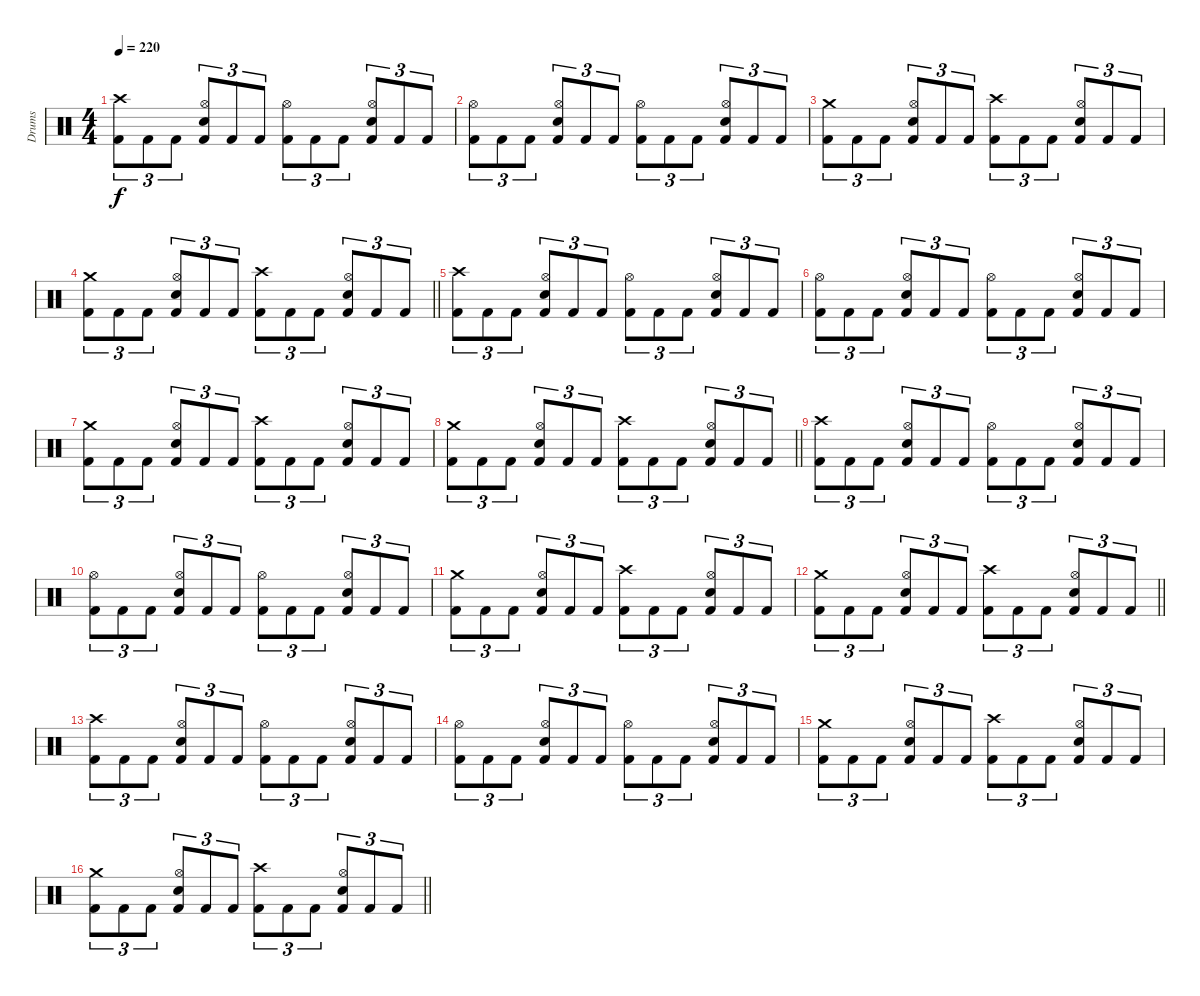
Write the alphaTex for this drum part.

\track ("Drums" "Drums") {instrument percussion}
\staff {score}
\articulation defaults
\ts (4 4)
\tempo 220
\clef neutral
\ks c
("Crash high (hit)" "Kick (hit) 2").8{tu (3 2) dy f} "Kick (hit) 2".8{tu (3 2)} "Kick (hit) 2".8{tu (3 2)} ("Hi-Hat (open)" "Snare (hit) 2" "Kick (hit) 2").8{tu (3 2)} "Kick (hit) 2".8{tu (3 2)} "Kick (hit) 2".8{tu (3 2)} ("Hi-Hat (open)" "Kick (hit) 2").8{tu (3 2)} "Kick (hit) 2".8{tu (3 2)} "Kick (hit) 2".8{tu (3 2)} ("Hi-Hat (open)" "Snare (hit) 2" "Kick (hit) 2").8{tu (3 2)} "Kick (hit) 2".8{tu (3 2)} "Kick (hit) 2".8{tu (3 2)} |
("Hi-Hat (open)" "Kick (hit) 2").8{tu (3 2)} "Kick (hit) 2".8{tu (3 2)} "Kick (hit) 2".8{tu (3 2)} ("Hi-Hat (open)" "Snare (hit) 2" "Kick (hit) 2").8{tu (3 2)} "Kick (hit) 2".8{tu (3 2)} "Kick (hit) 2".8{tu (3 2)} ("Hi-Hat (open)" "Kick (hit) 2").8{tu (3 2)} "Kick (hit) 2".8{tu (3 2)} "Kick (hit) 2".8{tu (3 2)} ("Hi-Hat (open)" "Snare (hit) 2" "Kick (hit) 2").8{tu (3 2)} "Kick (hit) 2".8{tu (3 2)} "Kick (hit) 2".8{tu (3 2)} |
("Crash medium (hit)" "Kick (hit) 2").8{tu (3 2)} "Kick (hit) 2".8{tu (3 2)} "Kick (hit) 2".8{tu (3 2)} ("Hi-Hat (open)" "Snare (hit) 2" "Kick (hit) 2").8{tu (3 2)} "Kick (hit) 2".8{tu (3 2)} "Kick (hit) 2".8{tu (3 2)} ("Crash high (hit)" "Kick (hit) 2").8{tu (3 2)} "Kick (hit) 2".8{tu (3 2)} "Kick (hit) 2".8{tu (3 2)} ("Hi-Hat (open)" "Snare (hit) 2" "Kick (hit) 2").8{tu (3 2)} "Kick (hit) 2".8{tu (3 2)} "Kick (hit) 2".8{tu (3 2)} |
\barLineRight lightlight
("Crash medium (hit)" "Kick (hit) 2").8{tu (3 2)} "Kick (hit) 2".8{tu (3 2)} "Kick (hit) 2".8{tu (3 2)} ("Hi-Hat (open)" "Snare (hit) 2" "Kick (hit) 2").8{tu (3 2)} "Kick (hit) 2".8{tu (3 2)} "Kick (hit) 2".8{tu (3 2)} ("Crash high (hit)" "Kick (hit) 2").8{tu (3 2)} "Kick (hit) 2".8{tu (3 2)} "Kick (hit) 2".8{tu (3 2)} ("Hi-Hat (open)" "Snare (hit) 2" "Kick (hit) 2").8{tu (3 2)} "Kick (hit) 2".8{tu (3 2)} "Kick (hit) 2".8{tu (3 2)} |
("Crash high (hit)" "Kick (hit) 2").8{tu (3 2)} "Kick (hit) 2".8{tu (3 2)} "Kick (hit) 2".8{tu (3 2)} ("Hi-Hat (open)" "Snare (hit) 2" "Kick (hit) 2").8{tu (3 2)} "Kick (hit) 2".8{tu (3 2)} "Kick (hit) 2".8{tu (3 2)} ("Hi-Hat (open)" "Kick (hit) 2").8{tu (3 2)} "Kick (hit) 2".8{tu (3 2)} "Kick (hit) 2".8{tu (3 2)} ("Hi-Hat (open)" "Snare (hit) 2" "Kick (hit) 2").8{tu (3 2)} "Kick (hit) 2".8{tu (3 2)} "Kick (hit) 2".8{tu (3 2)} |
("Hi-Hat (open)" "Kick (hit) 2").8{tu (3 2)} "Kick (hit) 2".8{tu (3 2)} "Kick (hit) 2".8{tu (3 2)} ("Hi-Hat (open)" "Snare (hit) 2" "Kick (hit) 2").8{tu (3 2)} "Kick (hit) 2".8{tu (3 2)} "Kick (hit) 2".8{tu (3 2)} ("Hi-Hat (open)" "Kick (hit) 2").8{tu (3 2)} "Kick (hit) 2".8{tu (3 2)} "Kick (hit) 2".8{tu (3 2)} ("Hi-Hat (open)" "Snare (hit) 2" "Kick (hit) 2").8{tu (3 2)} "Kick (hit) 2".8{tu (3 2)} "Kick (hit) 2".8{tu (3 2)} |
("Crash medium (hit)" "Kick (hit) 2").8{tu (3 2)} "Kick (hit) 2".8{tu (3 2)} "Kick (hit) 2".8{tu (3 2)} ("Hi-Hat (open)" "Snare (hit) 2" "Kick (hit) 2").8{tu (3 2)} "Kick (hit) 2".8{tu (3 2)} "Kick (hit) 2".8{tu (3 2)} ("Crash high (hit)" "Kick (hit) 2").8{tu (3 2)} "Kick (hit) 2".8{tu (3 2)} "Kick (hit) 2".8{tu (3 2)} ("Hi-Hat (open)" "Snare (hit) 2" "Kick (hit) 2").8{tu (3 2)} "Kick (hit) 2".8{tu (3 2)} "Kick (hit) 2".8{tu (3 2)} |
\barLineRight lightlight
("Crash medium (hit)" "Kick (hit) 2").8{tu (3 2)} "Kick (hit) 2".8{tu (3 2)} "Kick (hit) 2".8{tu (3 2)} ("Hi-Hat (open)" "Snare (hit) 2" "Kick (hit) 2").8{tu (3 2)} "Kick (hit) 2".8{tu (3 2)} "Kick (hit) 2".8{tu (3 2)} ("Crash high (hit)" "Kick (hit) 2").8{tu (3 2)} "Kick (hit) 2".8{tu (3 2)} "Kick (hit) 2".8{tu (3 2)} ("Hi-Hat (open)" "Snare (hit) 2" "Kick (hit) 2").8{tu (3 2)} "Kick (hit) 2".8{tu (3 2)} "Kick (hit) 2".8{tu (3 2)} |
("Crash high (hit)" "Kick (hit) 2").8{tu (3 2)} "Kick (hit) 2".8{tu (3 2)} "Kick (hit) 2".8{tu (3 2)} ("Hi-Hat (open)" "Snare (hit) 2" "Kick (hit) 2").8{tu (3 2)} "Kick (hit) 2".8{tu (3 2)} "Kick (hit) 2".8{tu (3 2)} ("Hi-Hat (open)" "Kick (hit) 2").8{tu (3 2)} "Kick (hit) 2".8{tu (3 2)} "Kick (hit) 2".8{tu (3 2)} ("Hi-Hat (open)" "Snare (hit) 2" "Kick (hit) 2").8{tu (3 2)} "Kick (hit) 2".8{tu (3 2)} "Kick (hit) 2".8{tu (3 2)} |
("Hi-Hat (open)" "Kick (hit) 2").8{tu (3 2)} "Kick (hit) 2".8{tu (3 2)} "Kick (hit) 2".8{tu (3 2)} ("Hi-Hat (open)" "Snare (hit) 2" "Kick (hit) 2").8{tu (3 2)} "Kick (hit) 2".8{tu (3 2)} "Kick (hit) 2".8{tu (3 2)} ("Hi-Hat (open)" "Kick (hit) 2").8{tu (3 2)} "Kick (hit) 2".8{tu (3 2)} "Kick (hit) 2".8{tu (3 2)} ("Hi-Hat (open)" "Snare (hit) 2" "Kick (hit) 2").8{tu (3 2)} "Kick (hit) 2".8{tu (3 2)} "Kick (hit) 2".8{tu (3 2)} |
("Crash medium (hit)" "Kick (hit) 2").8{tu (3 2)} "Kick (hit) 2".8{tu (3 2)} "Kick (hit) 2".8{tu (3 2)} ("Hi-Hat (open)" "Snare (hit) 2" "Kick (hit) 2").8{tu (3 2)} "Kick (hit) 2".8{tu (3 2)} "Kick (hit) 2".8{tu (3 2)} ("Crash high (hit)" "Kick (hit) 2").8{tu (3 2)} "Kick (hit) 2".8{tu (3 2)} "Kick (hit) 2".8{tu (3 2)} ("Hi-Hat (open)" "Snare (hit) 2" "Kick (hit) 2").8{tu (3 2)} "Kick (hit) 2".8{tu (3 2)} "Kick (hit) 2".8{tu (3 2)} |
\barLineRight lightlight
("Crash medium (hit)" "Kick (hit) 2").8{tu (3 2)} "Kick (hit) 2".8{tu (3 2)} "Kick (hit) 2".8{tu (3 2)} ("Hi-Hat (open)" "Snare (hit) 2" "Kick (hit) 2").8{tu (3 2)} "Kick (hit) 2".8{tu (3 2)} "Kick (hit) 2".8{tu (3 2)} ("Crash high (hit)" "Kick (hit) 2").8{tu (3 2)} "Kick (hit) 2".8{tu (3 2)} "Kick (hit) 2".8{tu (3 2)} ("Hi-Hat (open)" "Snare (hit) 2" "Kick (hit) 2").8{tu (3 2)} "Kick (hit) 2".8{tu (3 2)} "Kick (hit) 2".8{tu (3 2)} |
("Crash high (hit)" "Kick (hit) 2").8{tu (3 2)} "Kick (hit) 2".8{tu (3 2)} "Kick (hit) 2".8{tu (3 2)} ("Hi-Hat (open)" "Snare (hit) 2" "Kick (hit) 2").8{tu (3 2)} "Kick (hit) 2".8{tu (3 2)} "Kick (hit) 2".8{tu (3 2)} ("Hi-Hat (open)" "Kick (hit) 2").8{tu (3 2)} "Kick (hit) 2".8{tu (3 2)} "Kick (hit) 2".8{tu (3 2)} ("Hi-Hat (open)" "Snare (hit) 2" "Kick (hit) 2").8{tu (3 2)} "Kick (hit) 2".8{tu (3 2)} "Kick (hit) 2".8{tu (3 2)} |
("Hi-Hat (open)" "Kick (hit) 2").8{tu (3 2)} "Kick (hit) 2".8{tu (3 2)} "Kick (hit) 2".8{tu (3 2)} ("Hi-Hat (open)" "Snare (hit) 2" "Kick (hit) 2").8{tu (3 2)} "Kick (hit) 2".8{tu (3 2)} "Kick (hit) 2".8{tu (3 2)} ("Hi-Hat (open)" "Kick (hit) 2").8{tu (3 2)} "Kick (hit) 2".8{tu (3 2)} "Kick (hit) 2".8{tu (3 2)} ("Hi-Hat (open)" "Snare (hit) 2" "Kick (hit) 2").8{tu (3 2)} "Kick (hit) 2".8{tu (3 2)} "Kick (hit) 2".8{tu (3 2)} |
("Crash medium (hit)" "Kick (hit) 2").8{tu (3 2)} "Kick (hit) 2".8{tu (3 2)} "Kick (hit) 2".8{tu (3 2)} ("Hi-Hat (open)" "Snare (hit) 2" "Kick (hit) 2").8{tu (3 2)} "Kick (hit) 2".8{tu (3 2)} "Kick (hit) 2".8{tu (3 2)} ("Crash high (hit)" "Kick (hit) 2").8{tu (3 2)} "Kick (hit) 2".8{tu (3 2)} "Kick (hit) 2".8{tu (3 2)} ("Hi-Hat (open)" "Snare (hit) 2" "Kick (hit) 2").8{tu (3 2)} "Kick (hit) 2".8{tu (3 2)} "Kick (hit) 2".8{tu (3 2)} |
\barLineRight lightlight
("Crash medium (hit)" "Kick (hit) 2").8{tu (3 2)} "Kick (hit) 2".8{tu (3 2)} "Kick (hit) 2".8{tu (3 2)} ("Hi-Hat (open)" "Snare (hit) 2" "Kick (hit) 2").8{tu (3 2)} "Kick (hit) 2".8{tu (3 2)} "Kick (hit) 2".8{tu (3 2)} ("Crash high (hit)" "Kick (hit) 2").8{tu (3 2)} "Kick (hit) 2".8{tu (3 2)} "Kick (hit) 2".8{tu (3 2)} ("Hi-Hat (open)" "Snare (hit) 2" "Kick (hit) 2").8{tu (3 2)} "Kick (hit) 2".8{tu (3 2)} "Kick (hit) 2".8{tu (3 2)}
